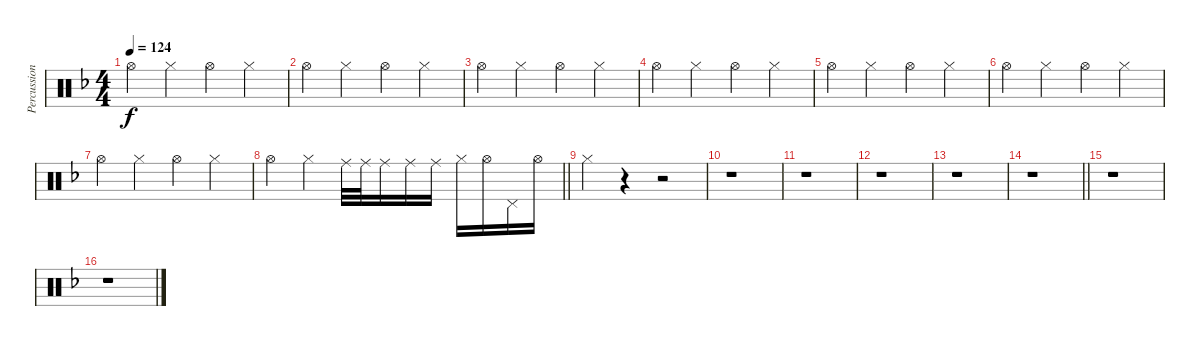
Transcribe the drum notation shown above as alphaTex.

\track ("Percussions" "Percussion") {instrument percussion}
\staff {score}
\articulation defaults
\ts (4 4)
\tempo 124
\clef neutral
\ks dminor "Hi-Hat (open)".4{dy f volume 9} "Hi-Hat (closed)".4 "Hi-Hat (open)".4 "Hi-Hat (closed)".4
|
"Hi-Hat (open)".4 "Hi-Hat (closed)".4 "Hi-Hat (open)".4 "Hi-Hat (closed)".4 |
"Hi-Hat (open)".4 "Hi-Hat (closed)".4 "Hi-Hat (open)".4 "Hi-Hat (closed)".4 |
"Hi-Hat (open)".4 "Hi-Hat (closed)".4 "Hi-Hat (open)".4 "Hi-Hat (closed)".4 |
"Hi-Hat (open)".4 "Hi-Hat (closed)".4 "Hi-Hat (open)".4 "Hi-Hat (closed)".4 |
"Hi-Hat (open)".4 "Hi-Hat (closed)".4 "Hi-Hat (open)".4 "Hi-Hat (closed)".4 |
"Hi-Hat (open)".4 "Hi-Hat (closed)".4 "Hi-Hat (open)".4 "Hi-Hat (closed)".4 |
\barLineRight lightlight "Hi-Hat (open)".4 "Hi-Hat (closed)".4 "Ride (middle)".32 "Ride (middle)".32 "Ride (middle)".16 "Ride (middle)".16 "Ride (middle)".16 "Hi-Hat (closed)".16 "Hi-Hat (open)".16 "Pedal Hi-Hat (hit)".16 "Hi-Hat (open)".16
|
"Hi-Hat (closed)".4 r.4 r.2 |
r.1 |
r.1 |
r.1 |
r.1 |
\barLineRight lightlight
r.1 |
r.1 |
r.1
